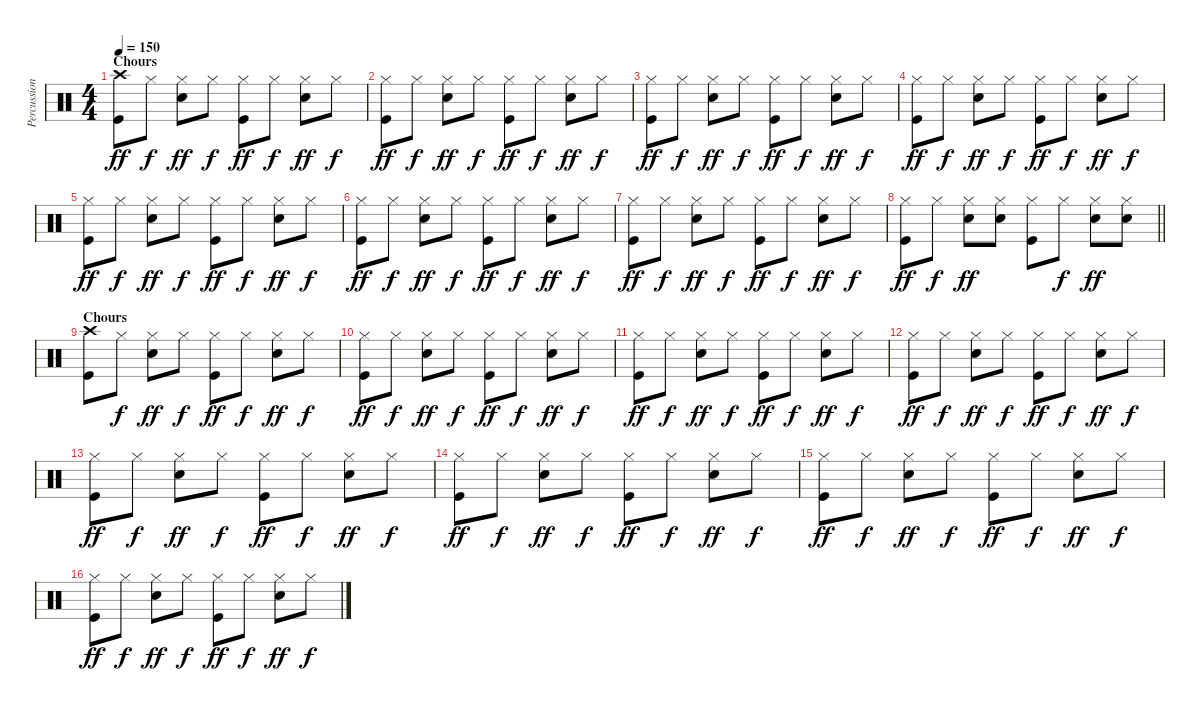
\track ("Percussion" "Percussion") {instrument percussion}
\staff {score}
\articulation defaults
\ts (4 4)
\section ("" "Chours")
\tempo 150
\clef neutral
\ks c
("Crash high (hit)" "Kick (hit)").8{dy ff} "Hi-Hat (closed)".8{dy f} ("Hi-Hat (closed)" "Snare (hit) 2").8{dy ff} "Hi-Hat (closed)".8{dy f} ("Hi-Hat (closed)" "Kick (hit)").8{dy ff} "Hi-Hat (closed)".8{dy f} ("Hi-Hat (closed)" "Snare (hit) 2").8{dy ff} "Hi-Hat (closed)".8{dy f} |
("Hi-Hat (closed)" "Kick (hit)").8{dy ff} "Hi-Hat (closed)".8{dy f} ("Hi-Hat (closed)" "Snare (hit) 2").8{dy ff} "Hi-Hat (closed)".8{dy f} ("Hi-Hat (closed)" "Kick (hit)").8{dy ff} "Hi-Hat (closed)".8{dy f} ("Hi-Hat (closed)" "Snare (hit) 2").8{dy ff} "Hi-Hat (closed)".8{dy f} |
("Hi-Hat (closed)" "Kick (hit)").8{dy ff} "Hi-Hat (closed)".8{dy f} ("Hi-Hat (closed)" "Snare (hit) 2").8{dy ff} "Hi-Hat (closed)".8{dy f} ("Hi-Hat (closed)" "Kick (hit)").8{dy ff} "Hi-Hat (closed)".8{dy f} ("Hi-Hat (closed)" "Snare (hit) 2").8{dy ff} "Hi-Hat (closed)".8{dy f} |
("Hi-Hat (closed)" "Kick (hit)").8{dy ff} "Hi-Hat (closed)".8{dy f} ("Hi-Hat (closed)" "Snare (hit) 2").8{dy ff} "Hi-Hat (closed)".8{dy f} ("Hi-Hat (closed)" "Kick (hit)").8{dy ff} "Hi-Hat (closed)".8{dy f} ("Hi-Hat (closed)" "Snare (hit) 2").8{dy ff} "Hi-Hat (closed)".8{dy f} |
("Hi-Hat (closed)" "Kick (hit)").8{dy ff} "Hi-Hat (closed)".8{dy f} ("Hi-Hat (closed)" "Snare (hit) 2").8{dy ff} "Hi-Hat (closed)".8{dy f} ("Hi-Hat (closed)" "Kick (hit)").8{dy ff} "Hi-Hat (closed)".8{dy f} ("Hi-Hat (closed)" "Snare (hit) 2").8{dy ff} "Hi-Hat (closed)".8{dy f} |
("Hi-Hat (closed)" "Kick (hit)").8{dy ff} "Hi-Hat (closed)".8{dy f} ("Hi-Hat (closed)" "Snare (hit) 2").8{dy ff} "Hi-Hat (closed)".8{dy f} ("Hi-Hat (closed)" "Kick (hit)").8{dy ff} "Hi-Hat (closed)".8{dy f} ("Hi-Hat (closed)" "Snare (hit) 2").8{dy ff} "Hi-Hat (closed)".8{dy f} |
("Hi-Hat (closed)" "Kick (hit)").8{dy ff} "Hi-Hat (closed)".8{dy f} ("Hi-Hat (closed)" "Snare (hit) 2").8{dy ff} "Hi-Hat (closed)".8{dy f} ("Hi-Hat (closed)" "Kick (hit)").8{dy ff} "Hi-Hat (closed)".8{dy f} ("Hi-Hat (closed)" "Snare (hit) 2").8{dy ff} "Hi-Hat (closed)".8{dy f} |
\barLineRight lightlight
("Hi-Hat (closed)" "Kick (hit)").8{dy ff} "Hi-Hat (closed)".8{dy f} ("Hi-Hat (closed)" "Snare (hit) 2").8{dy ff} ("Hi-Hat (closed)" "Snare (hit) 2").8 ("Hi-Hat (closed)" "Kick (hit)").8 "Hi-Hat (closed)".8{dy f} ("Hi-Hat (closed)" "Snare (hit) 2").8{dy ff} ("Hi-Hat (closed)" "Snare (hit) 2").8 |
\section ("" "Chours")
("Crash high (hit)" "Kick (hit)").8 "Hi-Hat (closed)".8{dy f} ("Hi-Hat (closed)" "Snare (hit) 2").8{dy ff} "Hi-Hat (closed)".8{dy f} ("Hi-Hat (closed)" "Kick (hit)").8{dy ff} "Hi-Hat (closed)".8{dy f} ("Hi-Hat (closed)" "Snare (hit) 2").8{dy ff} "Hi-Hat (closed)".8{dy f} |
("Hi-Hat (closed)" "Kick (hit)").8{dy ff} "Hi-Hat (closed)".8{dy f} ("Hi-Hat (closed)" "Snare (hit) 2").8{dy ff} "Hi-Hat (closed)".8{dy f} ("Hi-Hat (closed)" "Kick (hit)").8{dy ff} "Hi-Hat (closed)".8{dy f} ("Hi-Hat (closed)" "Snare (hit) 2").8{dy ff} "Hi-Hat (closed)".8{dy f} |
("Hi-Hat (closed)" "Kick (hit)").8{dy ff} "Hi-Hat (closed)".8{dy f} ("Hi-Hat (closed)" "Snare (hit) 2").8{dy ff} "Hi-Hat (closed)".8{dy f} ("Hi-Hat (closed)" "Kick (hit)").8{dy ff} "Hi-Hat (closed)".8{dy f} ("Hi-Hat (closed)" "Snare (hit) 2").8{dy ff} "Hi-Hat (closed)".8{dy f} |
("Hi-Hat (closed)" "Kick (hit)").8{dy ff} "Hi-Hat (closed)".8{dy f} ("Hi-Hat (closed)" "Snare (hit) 2").8{dy ff} "Hi-Hat (closed)".8{dy f} ("Hi-Hat (closed)" "Kick (hit)").8{dy ff} "Hi-Hat (closed)".8{dy f} ("Hi-Hat (closed)" "Snare (hit) 2").8{dy ff} "Hi-Hat (closed)".8{dy f} |
("Hi-Hat (closed)" "Kick (hit)").8{dy ff} "Hi-Hat (closed)".8{dy f} ("Hi-Hat (closed)" "Snare (hit) 2").8{dy ff} "Hi-Hat (closed)".8{dy f} ("Hi-Hat (closed)" "Kick (hit)").8{dy ff} "Hi-Hat (closed)".8{dy f} ("Hi-Hat (closed)" "Snare (hit) 2").8{dy ff} "Hi-Hat (closed)".8{dy f} |
("Hi-Hat (closed)" "Kick (hit)").8{dy ff} "Hi-Hat (closed)".8{dy f} ("Hi-Hat (closed)" "Snare (hit) 2").8{dy ff} "Hi-Hat (closed)".8{dy f} ("Hi-Hat (closed)" "Kick (hit)").8{dy ff} "Hi-Hat (closed)".8{dy f} ("Hi-Hat (closed)" "Snare (hit) 2").8{dy ff} "Hi-Hat (closed)".8{dy f} |
("Hi-Hat (closed)" "Kick (hit)").8{dy ff} "Hi-Hat (closed)".8{dy f} ("Hi-Hat (closed)" "Snare (hit) 2").8{dy ff} "Hi-Hat (closed)".8{dy f} ("Hi-Hat (closed)" "Kick (hit)").8{dy ff} "Hi-Hat (closed)".8{dy f} ("Hi-Hat (closed)" "Snare (hit) 2").8{dy ff} "Hi-Hat (closed)".8{dy f} |
("Hi-Hat (closed)" "Kick (hit)").8{dy ff} "Hi-Hat (closed)".8{dy f} ("Hi-Hat (closed)" "Snare (hit) 2").8{dy ff} "Hi-Hat (closed)".8{dy f} ("Hi-Hat (closed)" "Kick (hit)").8{dy ff} "Hi-Hat (closed)".8{dy f} ("Hi-Hat (closed)" "Snare (hit) 2").8{dy ff} "Hi-Hat (closed)".8{dy f}
